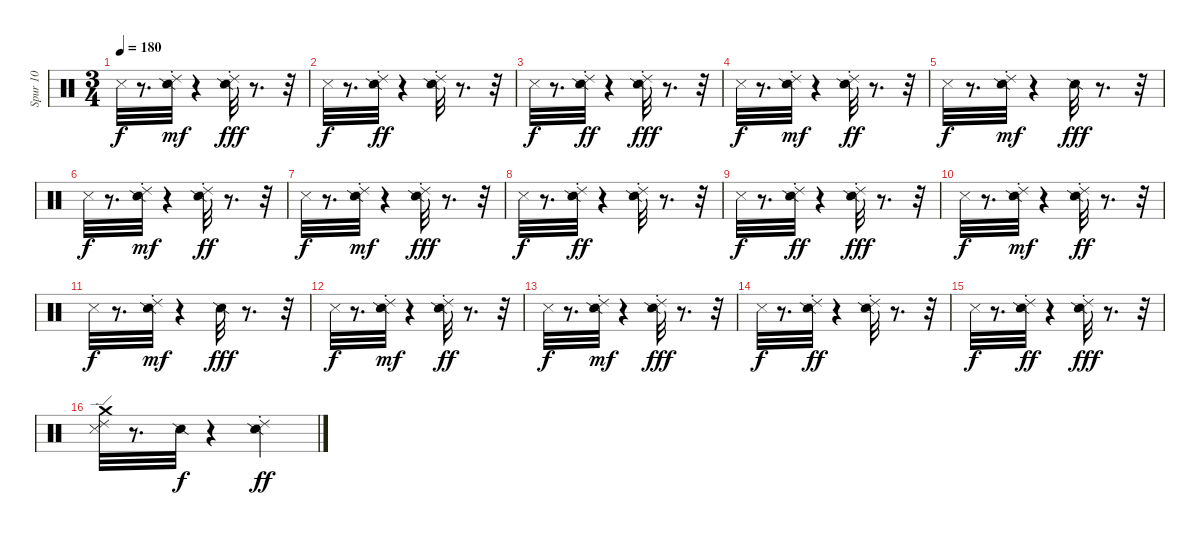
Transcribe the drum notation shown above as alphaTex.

\track ("Spur 10" "Spur 10") {instrument percussion}
\staff {score}
\articulation defaults
\ts (3 4)
\tempo 180
\clef neutral
\ks c "Metronome (hit)".32{dy f}
r.8{d} ("Ride (choke) 2" "Snare (side stick) 2").32{dy mf} r.4 ("Ride (choke) 2" "Snare (side stick) 2").32{dy fff} r.8{d} r.32 |
"Metronome (hit)".32{dy f} r.8{d} ("Ride (choke) 2" "Snare (side stick) 2").32{dy ff} r.4 ("Ride (choke) 2" "Snare (side stick) 2").32 r.8{d} r.32 |
"Metronome (hit)".32{dy f} r.8{d} ("Ride (choke) 2" "Snare (side stick) 2").32{dy ff} r.4 ("Ride (choke) 2" "Snare (side stick) 2").32{dy fff} r.8{d} r.32 |
"Metronome (hit)".32{dy f} r.8{d} ("Ride (choke) 2" "Snare (side stick) 2").32{dy mf} r.4 ("Ride (choke) 2" "Snare (side stick) 2").32{dy ff} r.8{d} r.32 |
"Metronome (hit)".32{dy f} r.8{d} ("Ride (choke) 2" "Snare (side stick) 2").32{dy mf} r.4 "Snare (side stick) 2".32{dy fff} r.8{d} r.32 |
"Metronome (hit)".32{dy f} r.8{d} ("Ride (choke) 2" "Snare (side stick) 2").32{dy mf} r.4 ("Ride (choke) 2" "Snare (side stick) 2").32{dy ff} r.8{d} r.32 |
"Metronome (hit)".32{dy f} r.8{d} ("Ride (choke) 2" "Snare (side stick) 2").32{dy mf} r.4 ("Ride (choke) 2" "Snare (side stick) 2").32{dy fff} r.8{d} r.32 |
"Metronome (hit)".32{dy f} r.8{d} ("Ride (choke) 2" "Snare (side stick) 2").32{dy ff} r.4 ("Ride (choke) 2" "Snare (side stick) 2").32 r.8{d} r.32 |
"Metronome (hit)".32{dy f} r.8{d} ("Ride (choke) 2" "Snare (side stick) 2").32{dy ff} r.4 ("Ride (choke) 2" "Snare (side stick) 2").32{dy fff} r.8{d} r.32 |
"Metronome (hit)".32{dy f} r.8{d} ("Ride (choke) 2" "Snare (side stick) 2").32{dy mf} r.4 ("Ride (choke) 2" "Snare (side stick) 2").32{dy ff} r.8{d} r.32 |
"Metronome (hit)".32{dy f} r.8{d} ("Ride (choke) 2" "Snare (side stick) 2").32{dy mf} r.4 "Snare (side stick) 2".32{dy fff} r.8{d} r.32 |
"Metronome (hit)".32{dy f} r.8{d} ("Ride (choke) 2" "Snare (side stick) 2").32{dy mf} r.4 ("Ride (choke) 2" "Snare (side stick) 2").32{dy ff} r.8{d} r.32 |
"Metronome (hit)".32{dy f} r.8{d} ("Ride (choke) 2" "Snare (side stick) 2").32{dy mf} r.4 ("Ride (choke) 2" "Snare (side stick) 2").32{dy fff} r.8{d} r.32 |
"Metronome (hit)".32{dy f} r.8{d} ("Ride (choke) 2" "Snare (side stick) 2").32{dy ff} r.4 ("Ride (choke) 2" "Snare (side stick) 2").32 r.8{d} r.32 |
"Metronome (hit)".32{dy f} r.8{d} ("Ride (choke) 2" "Snare (side stick) 2").32{dy ff} r.4 ("Ride (choke) 2" "Snare (side stick) 2").32{dy fff} r.8{d} r.32 |
("Metronome (hit)" "Crash medium (hit)" "Ride (edge) 2").32 r.8{d} "Snare (side stick) 2".32{dy f} r.4 ("Snare (side stick) 2" "Ride (choke) 2").4{dy ff}
